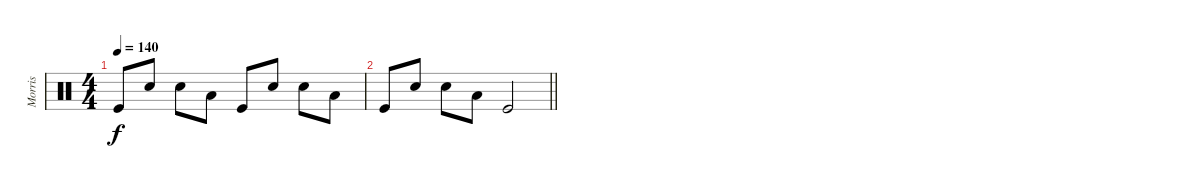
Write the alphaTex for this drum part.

\track ("Morris" "Morris") {instrument percussion}
\staff {score}
\articulation defaults
\ts (4 4)
\tempo 140
\clef neutral
\ks c "Kick (hit)".8{dy f} "Electric Snare (hit)".8 "Electric Snare (hit)".8 "Low Tom (hit)".8 "Kick (hit)".8 "Electric Snare (hit)".8 "Electric Snare (hit)".8 "Low Tom (hit)".8
|
\barLineRight lightlight "Kick (hit)".8 "Electric Snare (hit)".8 "Electric Snare (hit)".8 "Low Tom (hit)".8 "Kick (hit)".2
